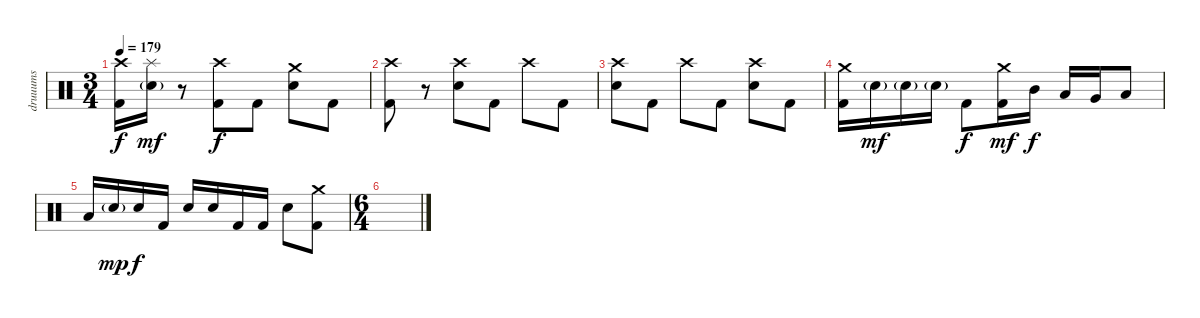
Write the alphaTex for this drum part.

\track ("druuums" "druuums") {instrument percussion}
\staff {score}
\articulation defaults
\ts (3 4)
\tempo 179
\clef neutral
\ks c
("Crash high (hit)" "Kick (hit) 2").16{dy f} ("Splash (hit)" "Electric Snare (hit)"{g}).16{dy mf} r.8 ("Crash high (hit)" "Kick (hit) 2").8{dy f} "Kick (hit) 2".8 ("Crash medium (hit)" "Electric Snare (hit)").8 "Kick (hit) 2".8 |
("Crash high (hit)" "Kick (hit) 2").8 r.8 ("Crash high (hit)" "Electric Snare (hit)").8 "Kick (hit) 2".8 "Crash high (hit)".8 "Kick (hit) 2".8 |
("Crash high (hit)" "Electric Snare (hit)").8 "Kick (hit) 2".8 "Crash high (hit)".8 "Kick (hit) 2".8 ("Crash high (hit)" "Electric Snare (hit)").8 "Kick (hit) 2".8 |
("Crash medium (hit)" "Kick (hit) 2").16 "Electric Snare (hit)"{g}.16{dy mf} "Electric Snare (hit)"{g}.16 "Electric Snare (hit)"{g}.16 "Kick (hit) 2".8{dy f} ("Crash medium (hit)" "Kick (hit) 2").16{dy mf} "Mid Tom (hit)".16{dy f} "Low Tom (hit)".16 "Very Low Tom (hit)".16 "Low Floor Tom (hit)".8 |
"Low Floor Tom (hit)".16 "Electric Snare (hit)"{g}.16{dy mp} "Electric Snare (hit)".16{dy f} "Kick (hit) 2".16 "Electric Snare (hit)".16 "Electric Snare (hit)".16 "Kick (hit) 2".16 "Kick (hit) 2".16 "Electric Snare (hit)".8 ("Crash medium (hit)" "Kick (hit) 2").8 |
\ts (6 4)
